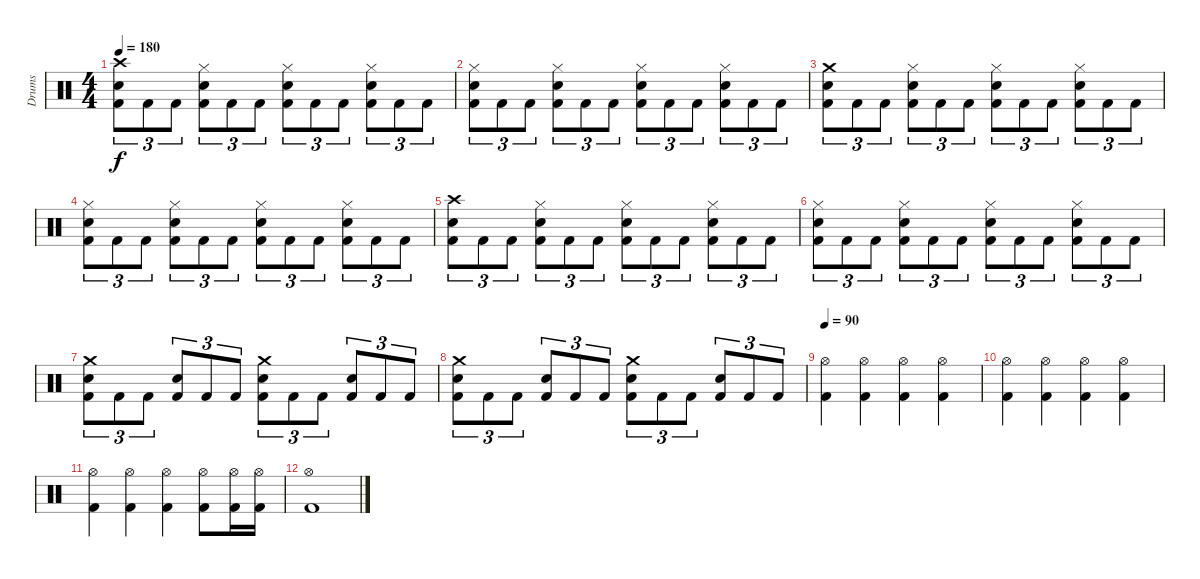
\track ("Drums" "Drums") {instrument percussion}
\staff {score}
\articulation defaults
\ts (4 4)
\tempo 180
\clef neutral
\ks c
("Crash high (hit)" "Electric Snare (hit)" "Kick (hit) 2").8{tu (3 2) dy f} "Kick (hit) 2".8{tu (3 2)} "Kick (hit) 2".8{tu (3 2)} ("Hi-Hat (closed)" "Electric Snare (hit)" "Kick (hit) 2").8{tu (3 2)} "Kick (hit) 2".8{tu (3 2)} "Kick (hit) 2".8{tu (3 2)} ("Hi-Hat (closed)" "Electric Snare (hit)" "Kick (hit) 2").8{tu (3 2)} "Kick (hit) 2".8{tu (3 2)} "Kick (hit) 2".8{tu (3 2)} ("Hi-Hat (closed)" "Electric Snare (hit)" "Kick (hit) 2").8{tu (3 2)} "Kick (hit) 2".8{tu (3 2)} "Kick (hit) 2".8{tu (3 2)} |
("Hi-Hat (closed)" "Electric Snare (hit)" "Kick (hit) 2").8{tu (3 2)} "Kick (hit) 2".8{tu (3 2)} "Kick (hit) 2".8{tu (3 2)} ("Hi-Hat (closed)" "Electric Snare (hit)" "Kick (hit) 2").8{tu (3 2)} "Kick (hit) 2".8{tu (3 2)} "Kick (hit) 2".8{tu (3 2)} ("Hi-Hat (closed)" "Electric Snare (hit)" "Kick (hit) 2").8{tu (3 2)} "Kick (hit) 2".8{tu (3 2)} "Kick (hit) 2".8{tu (3 2)} ("Hi-Hat (closed)" "Electric Snare (hit)" "Kick (hit) 2").8{tu (3 2)} "Kick (hit) 2".8{tu (3 2)} "Kick (hit) 2".8{tu (3 2)} |
("Crash medium (hit)" "Electric Snare (hit)" "Kick (hit) 2").8{tu (3 2)} "Kick (hit) 2".8{tu (3 2)} "Kick (hit) 2".8{tu (3 2)} ("Hi-Hat (closed)" "Electric Snare (hit)" "Kick (hit) 2").8{tu (3 2)} "Kick (hit) 2".8{tu (3 2)} "Kick (hit) 2".8{tu (3 2)} ("Hi-Hat (closed)" "Electric Snare (hit)" "Kick (hit) 2").8{tu (3 2)} "Kick (hit) 2".8{tu (3 2)} "Kick (hit) 2".8{tu (3 2)} ("Hi-Hat (closed)" "Electric Snare (hit)" "Kick (hit) 2").8{tu (3 2)} "Kick (hit) 2".8{tu (3 2)} "Kick (hit) 2".8{tu (3 2)} |
("Hi-Hat (closed)" "Electric Snare (hit)" "Kick (hit) 2").8{tu (3 2)} "Kick (hit) 2".8{tu (3 2)} "Kick (hit) 2".8{tu (3 2)} ("Hi-Hat (closed)" "Electric Snare (hit)" "Kick (hit) 2").8{tu (3 2)} "Kick (hit) 2".8{tu (3 2)} "Kick (hit) 2".8{tu (3 2)} ("Hi-Hat (closed)" "Electric Snare (hit)" "Kick (hit) 2").8{tu (3 2)} "Kick (hit) 2".8{tu (3 2)} "Kick (hit) 2".8{tu (3 2)} ("Hi-Hat (closed)" "Electric Snare (hit)" "Kick (hit) 2").8{tu (3 2)} "Kick (hit) 2".8{tu (3 2)} "Kick (hit) 2".8{tu (3 2)} |
("Crash high (hit)" "Electric Snare (hit)" "Kick (hit) 2").8{tu (3 2)} "Kick (hit) 2".8{tu (3 2)} "Kick (hit) 2".8{tu (3 2)} ("Hi-Hat (closed)" "Electric Snare (hit)" "Kick (hit) 2").8{tu (3 2)} "Kick (hit) 2".8{tu (3 2)} "Kick (hit) 2".8{tu (3 2)} ("Hi-Hat (closed)" "Electric Snare (hit)" "Kick (hit) 2").8{tu (3 2)} "Kick (hit) 2".8{tu (3 2)} "Kick (hit) 2".8{tu (3 2)} ("Hi-Hat (closed)" "Electric Snare (hit)" "Kick (hit) 2").8{tu (3 2)} "Kick (hit) 2".8{tu (3 2)} "Kick (hit) 2".8{tu (3 2)} |
("Hi-Hat (closed)" "Electric Snare (hit)" "Kick (hit) 2").8{tu (3 2)} "Kick (hit) 2".8{tu (3 2)} "Kick (hit) 2".8{tu (3 2)} ("Hi-Hat (closed)" "Electric Snare (hit)" "Kick (hit) 2").8{tu (3 2)} "Kick (hit) 2".8{tu (3 2)} "Kick (hit) 2".8{tu (3 2)} ("Hi-Hat (closed)" "Electric Snare (hit)" "Kick (hit) 2").8{tu (3 2)} "Kick (hit) 2".8{tu (3 2)} "Kick (hit) 2".8{tu (3 2)} ("Hi-Hat (closed)" "Electric Snare (hit)" "Kick (hit) 2").8{tu (3 2)} "Kick (hit) 2".8{tu (3 2)} "Kick (hit) 2".8{tu (3 2)} |
("Crash medium (hit)" "Electric Snare (hit)" "Kick (hit) 2").8{tu (3 2)} "Kick (hit) 2".8{tu (3 2)} "Kick (hit) 2".8{tu (3 2)} ("Electric Snare (hit)" "Kick (hit) 2").8{tu (3 2)} "Kick (hit) 2".8{tu (3 2)} "Kick (hit) 2".8{tu (3 2)} ("Crash medium (hit)" "Electric Snare (hit)" "Kick (hit) 2").8{tu (3 2)} "Kick (hit) 2".8{tu (3 2)} "Kick (hit) 2".8{tu (3 2)} ("Electric Snare (hit)" "Kick (hit) 2").8{tu (3 2)} "Kick (hit) 2".8{tu (3 2)} "Kick (hit) 2".8{tu (3 2)} |
("Crash medium (hit)" "Electric Snare (hit)" "Kick (hit) 2").8{tu (3 2)} "Kick (hit) 2".8{tu (3 2)} "Kick (hit) 2".8{tu (3 2)} ("Electric Snare (hit)" "Kick (hit) 2").8{tu (3 2)} "Kick (hit) 2".8{tu (3 2)} "Kick (hit) 2".8{tu (3 2)} ("Crash medium (hit)" "Electric Snare (hit)" "Kick (hit) 2").8{tu (3 2)} "Kick (hit) 2".8{tu (3 2)} "Kick (hit) 2".8{tu (3 2)} ("Electric Snare (hit)" "Kick (hit) 2").8{tu (3 2)} "Kick (hit) 2".8{tu (3 2)} "Kick (hit) 2".8{tu (3 2)} |
\tempo 90
("Hi-Hat (open)" "Kick (hit) 2").4 ("Hi-Hat (open)" "Kick (hit) 2").4 ("Hi-Hat (open)" "Kick (hit) 2").4 ("Hi-Hat (open)" "Kick (hit) 2").4 |
("Hi-Hat (open)" "Kick (hit) 2").4 ("Hi-Hat (open)" "Kick (hit) 2").4 ("Hi-Hat (open)" "Kick (hit) 2").4 ("Hi-Hat (open)" "Kick (hit) 2").4 |
("Hi-Hat (open)" "Kick (hit) 2").4 ("Hi-Hat (open)" "Kick (hit) 2").4 ("Hi-Hat (open)" "Kick (hit) 2").4 ("Hi-Hat (open)" "Kick (hit) 2").8 ("Hi-Hat (open)" "Kick (hit) 2").16 ("Hi-Hat (open)" "Kick (hit) 2").16 |
("Hi-Hat (open)" "Kick (hit) 2").1
